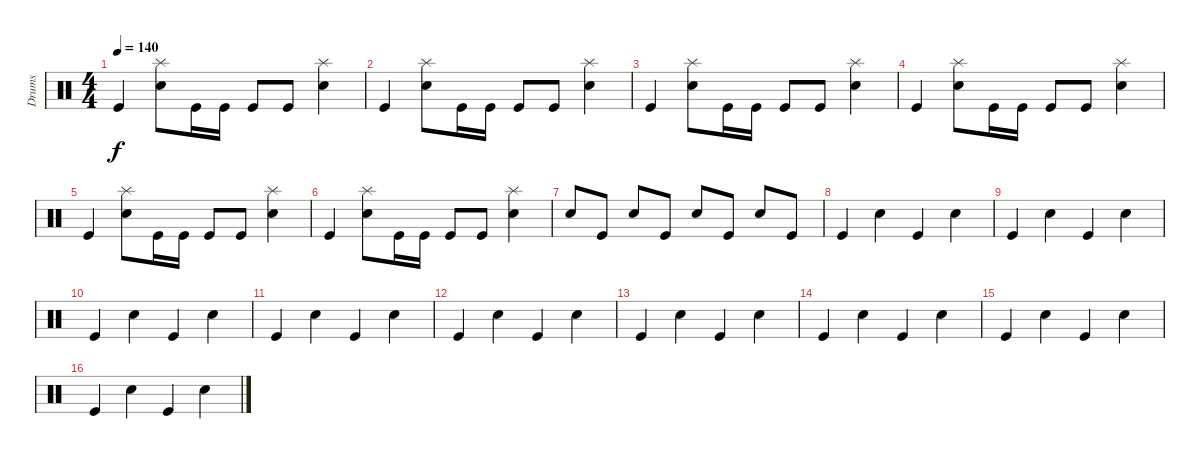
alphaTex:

\track ("Drums" "Drums") {instrument percussion}
\staff {score}
\articulation defaults
\ts (4 4)
\tempo 140
\clef neutral
\ks c "Kick (hit)".4{dy f}
("Splash (hit)" "Electric Snare (hit)").8 "Kick (hit)".16 "Kick (hit)".16 "Kick (hit)".8 "Kick (hit)".8 ("Splash (hit)" "Metronome (bell)").4 |
"Kick (hit)".4 ("Splash (hit)" "Electric Snare (hit)").8 "Kick (hit)".16 "Kick (hit)".16 "Kick (hit)".8 "Kick (hit)".8 ("Splash (hit)" "Metronome (bell)").4 |
"Kick (hit)".4 ("Splash (hit)" "Electric Snare (hit)").8 "Kick (hit)".16 "Kick (hit)".16 "Kick (hit)".8 "Kick (hit)".8 ("Splash (hit)" "Metronome (bell)").4 |
"Kick (hit)".4 ("Splash (hit)" "Electric Snare (hit)").8 "Kick (hit)".16 "Kick (hit)".16 "Kick (hit)".8 "Kick (hit)".8 ("Splash (hit)" "Metronome (bell)").4 |
"Kick (hit)".4 ("Splash (hit)" "Electric Snare (hit)").8 "Kick (hit)".16 "Kick (hit)".16 "Kick (hit)".8 "Kick (hit)".8 ("Splash (hit)" "Metronome (bell)").4 |
"Kick (hit)".4 ("Splash (hit)" "Electric Snare (hit)").8 "Kick (hit)".16 "Kick (hit)".16 "Kick (hit)".8 "Kick (hit)".8 ("Splash (hit)" "Metronome (bell)").4 |
"Electric Snare (hit)".8 "Kick (hit)".8 "Electric Snare (hit)".8 "Kick (hit)".8 "Electric Snare (hit)".8 "Kick (hit)".8 "Electric Snare (hit)".8 "Kick (hit)".8 |
"Kick (hit)".4 "Electric Snare (hit)".4 "Kick (hit)".4 "Electric Snare (hit)".4 |
"Kick (hit)".4 "Electric Snare (hit)".4 "Kick (hit)".4 "Electric Snare (hit)".4 |
"Kick (hit)".4 "Electric Snare (hit)".4 "Kick (hit)".4 "Electric Snare (hit)".4 |
"Kick (hit)".4 "Electric Snare (hit)".4 "Kick (hit)".4 "Electric Snare (hit)".4 |
"Kick (hit)".4 "Electric Snare (hit)".4 "Kick (hit)".4 "Electric Snare (hit)".4 |
"Kick (hit)".4 "Electric Snare (hit)".4 "Kick (hit)".4 "Electric Snare (hit)".4 |
"Kick (hit)".4 "Electric Snare (hit)".4 "Kick (hit)".4 "Electric Snare (hit)".4 |
"Kick (hit)".4 "Electric Snare (hit)".4 "Kick (hit)".4 "Electric Snare (hit)".4 |
"Kick (hit)".4 "Electric Snare (hit)".4 "Kick (hit)".4 "Electric Snare (hit)".4
